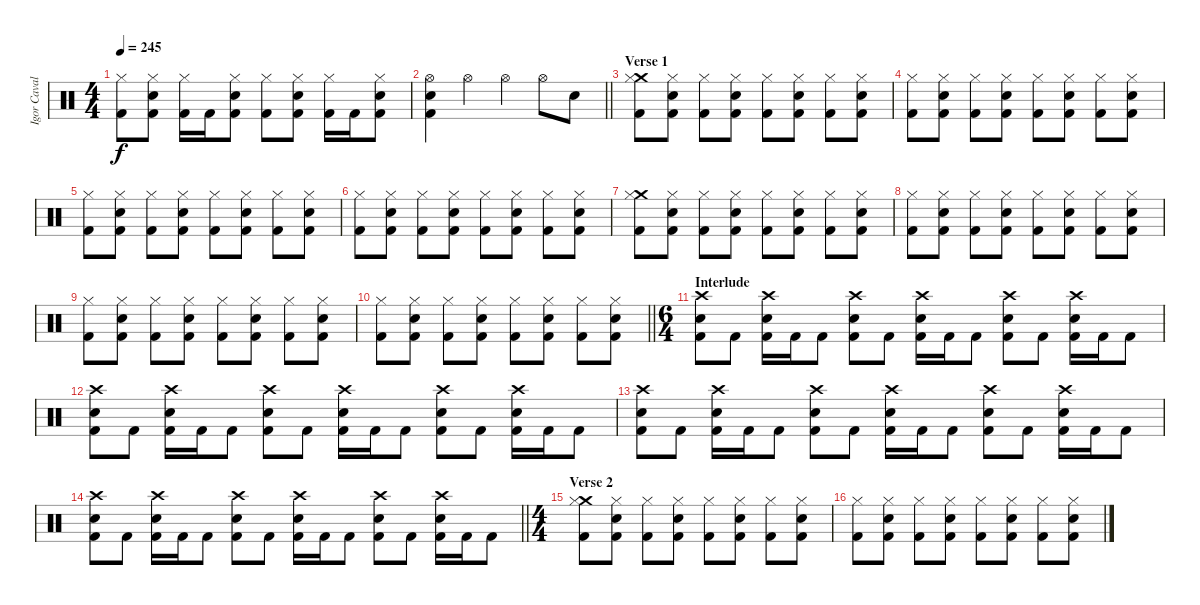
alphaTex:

\track ("Igor Cavalera" "Igor Caval") {instrument percussion}
\staff {score}
\articulation defaults
\ts (4 4)
\tempo 245
\clef neutral
\ks c
("Hi-Hat (closed)" "Kick (hit) 2").8{dy f} ("Hi-Hat (closed)" "Electric Snare (hit)" "Kick (hit) 2").8 ("Hi-Hat (closed)" "Kick (hit) 2").16 "Kick (hit) 2".16 ("Hi-Hat (closed)" "Electric Snare (hit)" "Kick (hit) 2").8 ("Hi-Hat (closed)" "Kick (hit) 2").8 ("Hi-Hat (closed)" "Electric Snare (hit)" "Kick (hit) 2").8 ("Hi-Hat (closed)" "Kick (hit) 2").16 "Kick (hit) 2".16 ("Hi-Hat (closed)" "Electric Snare (hit)" "Kick (hit) 2").8 |
\barLineRight lightlight
("Hi-Hat (open)" "Electric Snare (hit)" "Kick (hit) 2").4 "Hi-Hat (open)".4 "Hi-Hat (open)".4 "Hi-Hat (open)".8 "Electric Snare (hit)".8 |
\section ("" "Verse 1")
("Crash medium (hit)" "Hi-Hat (closed)" "Kick (hit) 2").8 ("Hi-Hat (closed)" "Electric Snare (hit)" "Kick (hit) 2").8 ("Hi-Hat (closed)" "Kick (hit) 2").8 ("Hi-Hat (closed)" "Electric Snare (hit)" "Kick (hit) 2").8 ("Hi-Hat (closed)" "Kick (hit) 2").8 ("Hi-Hat (closed)" "Electric Snare (hit)" "Kick (hit) 2").8 ("Hi-Hat (closed)" "Kick (hit) 2").8 ("Hi-Hat (closed)" "Electric Snare (hit)" "Kick (hit) 2").8 |
("Hi-Hat (closed)" "Kick (hit) 2").8 ("Hi-Hat (closed)" "Electric Snare (hit)" "Kick (hit) 2").8 ("Hi-Hat (closed)" "Kick (hit) 2").8 ("Hi-Hat (closed)" "Electric Snare (hit)" "Kick (hit) 2").8 ("Hi-Hat (closed)" "Kick (hit) 2").8 ("Hi-Hat (closed)" "Electric Snare (hit)" "Kick (hit) 2").8 ("Hi-Hat (closed)" "Kick (hit) 2").8 ("Hi-Hat (closed)" "Electric Snare (hit)" "Kick (hit) 2").8 |
("Hi-Hat (closed)" "Kick (hit) 2").8 ("Hi-Hat (closed)" "Electric Snare (hit)" "Kick (hit) 2").8 ("Hi-Hat (closed)" "Kick (hit) 2").8 ("Hi-Hat (closed)" "Electric Snare (hit)" "Kick (hit) 2").8 ("Hi-Hat (closed)" "Kick (hit) 2").8 ("Hi-Hat (closed)" "Electric Snare (hit)" "Kick (hit) 2").8 ("Hi-Hat (closed)" "Kick (hit) 2").8 ("Hi-Hat (closed)" "Electric Snare (hit)" "Kick (hit) 2").8 |
("Hi-Hat (closed)" "Kick (hit) 2").8 ("Hi-Hat (closed)" "Electric Snare (hit)" "Kick (hit) 2").8 ("Hi-Hat (closed)" "Kick (hit) 2").8 ("Hi-Hat (closed)" "Electric Snare (hit)" "Kick (hit) 2").8 ("Hi-Hat (closed)" "Kick (hit) 2").8 ("Hi-Hat (closed)" "Electric Snare (hit)" "Kick (hit) 2").8 ("Hi-Hat (closed)" "Kick (hit) 2").8 ("Hi-Hat (closed)" "Electric Snare (hit)" "Kick (hit) 2").8 |
("Crash medium (hit)" "Hi-Hat (closed)" "Kick (hit) 2").8 ("Hi-Hat (closed)" "Electric Snare (hit)" "Kick (hit) 2").8 ("Hi-Hat (closed)" "Kick (hit) 2").8 ("Hi-Hat (closed)" "Electric Snare (hit)" "Kick (hit) 2").8 ("Hi-Hat (closed)" "Kick (hit) 2").8 ("Hi-Hat (closed)" "Electric Snare (hit)" "Kick (hit) 2").8 ("Hi-Hat (closed)" "Kick (hit) 2").8 ("Hi-Hat (closed)" "Electric Snare (hit)" "Kick (hit) 2").8 |
("Hi-Hat (closed)" "Kick (hit) 2").8 ("Hi-Hat (closed)" "Electric Snare (hit)" "Kick (hit) 2").8 ("Hi-Hat (closed)" "Kick (hit) 2").8 ("Hi-Hat (closed)" "Electric Snare (hit)" "Kick (hit) 2").8 ("Hi-Hat (closed)" "Kick (hit) 2").8 ("Hi-Hat (closed)" "Electric Snare (hit)" "Kick (hit) 2").8 ("Hi-Hat (closed)" "Kick (hit) 2").8 ("Hi-Hat (closed)" "Electric Snare (hit)" "Kick (hit) 2").8 |
("Hi-Hat (closed)" "Kick (hit) 2").8 ("Hi-Hat (closed)" "Electric Snare (hit)" "Kick (hit) 2").8 ("Hi-Hat (closed)" "Kick (hit) 2").8 ("Hi-Hat (closed)" "Electric Snare (hit)" "Kick (hit) 2").8 ("Hi-Hat (closed)" "Kick (hit) 2").8 ("Hi-Hat (closed)" "Electric Snare (hit)" "Kick (hit) 2").8 ("Hi-Hat (closed)" "Kick (hit) 2").8 ("Hi-Hat (closed)" "Electric Snare (hit)" "Kick (hit) 2").8 |
\barLineRight lightlight
("Hi-Hat (closed)" "Kick (hit) 2").8 ("Hi-Hat (closed)" "Electric Snare (hit)" "Kick (hit) 2").8 ("Hi-Hat (closed)" "Kick (hit) 2").8 ("Hi-Hat (closed)" "Electric Snare (hit)" "Kick (hit) 2").8 ("Hi-Hat (closed)" "Kick (hit) 2").8 ("Hi-Hat (closed)" "Electric Snare (hit)" "Kick (hit) 2").8 ("Hi-Hat (closed)" "Kick (hit) 2").8 ("Hi-Hat (closed)" "Electric Snare (hit)" "Kick (hit) 2").8 |
\ts (6 4)
\section ("" "Interlude")
("Crash high (hit)" "Electric Snare (hit)" "Kick (hit) 2").8 "Kick (hit) 2".8 ("Crash high (hit)" "Electric Snare (hit)" "Kick (hit) 2").16 "Kick (hit) 2".16 "Kick (hit) 2".8 ("Crash high (hit)" "Electric Snare (hit)" "Kick (hit) 2").8 "Kick (hit) 2".8 ("Crash high (hit)" "Electric Snare (hit)" "Kick (hit) 2").16 "Kick (hit) 2".16 "Kick (hit) 2".8 ("Crash high (hit)" "Electric Snare (hit)" "Kick (hit) 2").8 "Kick (hit) 2".8 ("Crash high (hit)" "Electric Snare (hit)" "Kick (hit) 2").16 "Kick (hit) 2".16 "Kick (hit) 2".8 |
("Crash high (hit)" "Electric Snare (hit)" "Kick (hit) 2").8 "Kick (hit) 2".8 ("Crash high (hit)" "Electric Snare (hit)" "Kick (hit) 2").16 "Kick (hit) 2".16 "Kick (hit) 2".8 ("Crash high (hit)" "Electric Snare (hit)" "Kick (hit) 2").8 "Kick (hit) 2".8 ("Crash high (hit)" "Electric Snare (hit)" "Kick (hit) 2").16 "Kick (hit) 2".16 "Kick (hit) 2".8 ("Crash high (hit)" "Electric Snare (hit)" "Kick (hit) 2").8 "Kick (hit) 2".8 ("Crash high (hit)" "Electric Snare (hit)" "Kick (hit) 2").16 "Kick (hit) 2".16 "Kick (hit) 2".8 |
("Crash high (hit)" "Electric Snare (hit)" "Kick (hit) 2").8 "Kick (hit) 2".8 ("Crash high (hit)" "Electric Snare (hit)" "Kick (hit) 2").16 "Kick (hit) 2".16 "Kick (hit) 2".8 ("Crash high (hit)" "Electric Snare (hit)" "Kick (hit) 2").8 "Kick (hit) 2".8 ("Crash high (hit)" "Electric Snare (hit)" "Kick (hit) 2").16 "Kick (hit) 2".16 "Kick (hit) 2".8 ("Crash high (hit)" "Electric Snare (hit)" "Kick (hit) 2").8 "Kick (hit) 2".8 ("Crash high (hit)" "Electric Snare (hit)" "Kick (hit) 2").16 "Kick (hit) 2".16 "Kick (hit) 2".8 |
\barLineRight lightlight
("Crash high (hit)" "Electric Snare (hit)" "Kick (hit) 2").8 "Kick (hit) 2".8 ("Crash high (hit)" "Electric Snare (hit)" "Kick (hit) 2").16 "Kick (hit) 2".16 "Kick (hit) 2".8 ("Crash high (hit)" "Electric Snare (hit)" "Kick (hit) 2").8 "Kick (hit) 2".8 ("Crash high (hit)" "Electric Snare (hit)" "Kick (hit) 2").16 "Kick (hit) 2".16 "Kick (hit) 2".8 ("Crash high (hit)" "Electric Snare (hit)" "Kick (hit) 2").8 "Kick (hit) 2".8 ("Crash high (hit)" "Electric Snare (hit)" "Kick (hit) 2").16 "Kick (hit) 2".16 "Kick (hit) 2".8 |
\ts (4 4)
\section ("" "Verse 2")
("Crash medium (hit)" "Hi-Hat (closed)" "Kick (hit) 2").8 ("Hi-Hat (closed)" "Electric Snare (hit)" "Kick (hit) 2").8 ("Hi-Hat (closed)" "Kick (hit) 2").8 ("Hi-Hat (closed)" "Electric Snare (hit)" "Kick (hit) 2").8 ("Hi-Hat (closed)" "Kick (hit) 2").8 ("Hi-Hat (closed)" "Electric Snare (hit)" "Kick (hit) 2").8 ("Hi-Hat (closed)" "Kick (hit) 2").8 ("Hi-Hat (closed)" "Electric Snare (hit)" "Kick (hit) 2").8 |
("Hi-Hat (closed)" "Kick (hit) 2").8 ("Hi-Hat (closed)" "Electric Snare (hit)" "Kick (hit) 2").8 ("Hi-Hat (closed)" "Kick (hit) 2").8 ("Hi-Hat (closed)" "Electric Snare (hit)" "Kick (hit) 2").8 ("Hi-Hat (closed)" "Kick (hit) 2").8 ("Hi-Hat (closed)" "Electric Snare (hit)" "Kick (hit) 2").8 ("Hi-Hat (closed)" "Kick (hit) 2").8 ("Hi-Hat (closed)" "Electric Snare (hit)" "Kick (hit) 2").8
